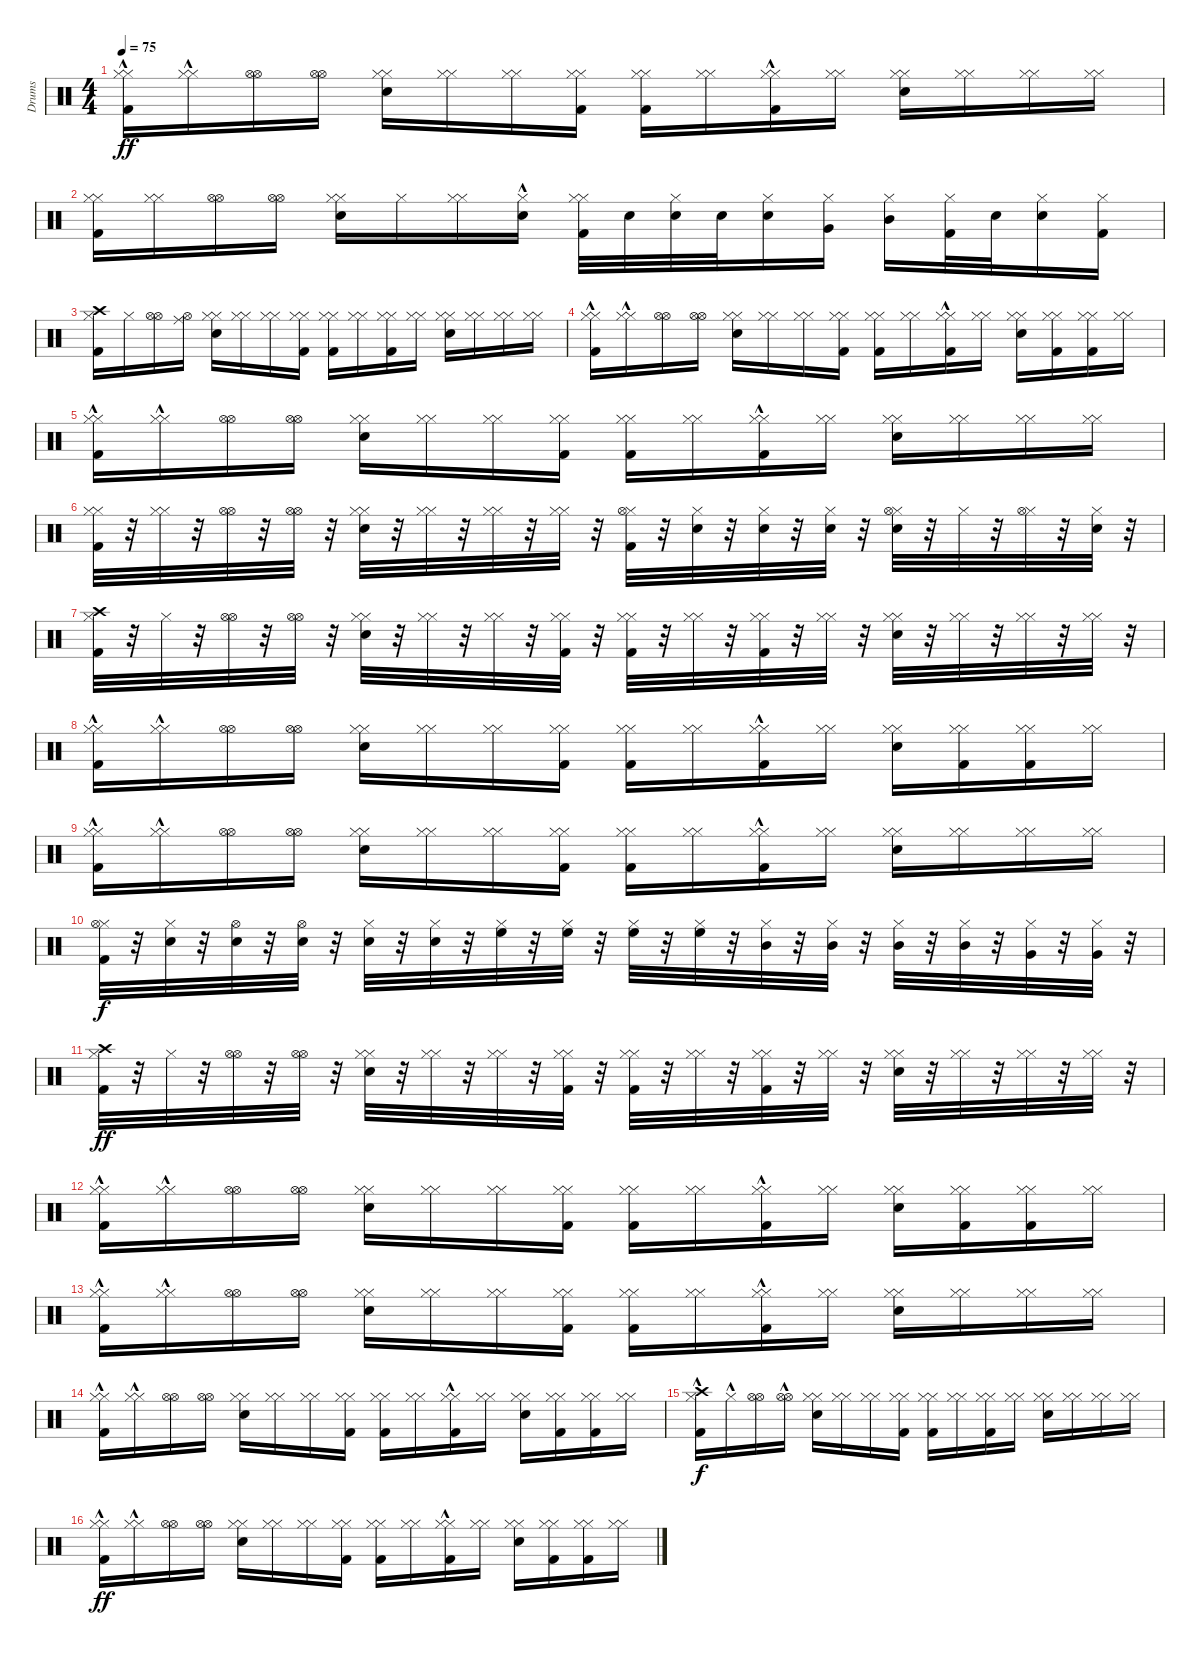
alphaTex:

\track ("Drums" "Drums") {instrument percussion}
\staff {score}
\articulation defaults
\ts (4 4)
\tempo 75
\clef neutral
\ks c
("Hi-Hat (closed)" "Kick (hit) 2"{hac} "Hi-Hat (closed)").16{dy ff} ("Hi-Hat (closed)"{hac} "Hi-Hat (closed)"{hac}).16 ("Hi-Hat (open)" "Hi-Hat (open)").16 ("Hi-Hat (open)" "Hi-Hat (open)").16 ("Hi-Hat (closed)" "Snare (hit) 2" "Hi-Hat (closed)").16 ("Hi-Hat (closed)" "Hi-Hat (closed)").16 ("Hi-Hat (closed)" "Hi-Hat (closed)").16 ("Hi-Hat (closed)" "Kick (hit) 2" "Hi-Hat (closed)").16 ("Hi-Hat (closed)" "Kick (hit) 2" "Hi-Hat (closed)").16 ("Hi-Hat (closed)" "Hi-Hat (closed)").16 ("Kick (hit) 2"{hac} "Hi-Hat (closed)" "Hi-Hat (closed)").16 ("Hi-Hat (closed)" "Hi-Hat (closed)").16 ("Snare (hit) 2" "Hi-Hat (closed)" "Hi-Hat (closed)").16 ("Hi-Hat (closed)" "Hi-Hat (closed)").16 ("Hi-Hat (closed)" "Hi-Hat (closed)").16 ("Hi-Hat (closed)" "Hi-Hat (closed)").16 |
("Hi-Hat (closed)" "Kick (hit) 2" "Hi-Hat (closed)").16 ("Hi-Hat (closed)" "Hi-Hat (closed)").16 ("Hi-Hat (open)" "Hi-Hat (open)").16 ("Hi-Hat (open)" "Hi-Hat (open)").16 ("Hi-Hat (closed)" "Snare (hit) 2" "Hi-Hat (closed)").16 "Hi-Hat (closed)".16 ("Hi-Hat (closed)" "Hi-Hat (closed)").16 ("Snare (hit) 2"{hac} "Hi-Hat (closed)").16 ("Hi-Hat (closed)" "Kick (hit) 2" "Hi-Hat (closed)").32 "Snare (hit) 2".32 ("Snare (hit) 2" "Hi-Hat (closed)").32 "Snare (hit) 2".32 ("Snare (hit) 2" "Hi-Hat (closed)").16 ("Hi-Hat (closed)" "Very Low Tom (hit)").16 ("Hi-Hat (closed)" "Mid Tom (hit)").16 ("Kick (hit) 2" "Hi-Hat (closed)").32 "Snare (hit) 2".32 ("Snare (hit) 2" "Hi-Hat (closed)").16 ("Kick (hit) 2" "Hi-Hat (closed)").16 |
("Hi-Hat (closed)" "Kick (hit) 2" "Crash high (hit)").16 "Hi-Hat (closed)".16 ("Hi-Hat (open)" "Hi-Hat (open)").16 ("Hi-Hat (open)" "Ride (middle)").16 ("Hi-Hat (closed)" "Snare (hit) 2" "Hi-Hat (closed)").16 ("Hi-Hat (closed)" "Hi-Hat (closed)").16 ("Hi-Hat (closed)" "Hi-Hat (closed)").16 ("Hi-Hat (closed)" "Kick (hit) 2" "Hi-Hat (closed)").16 ("Hi-Hat (closed)" "Kick (hit) 2" "Hi-Hat (closed)").16 ("Hi-Hat (closed)" "Hi-Hat (closed)").16 ("Hi-Hat (closed)" "Kick (hit) 2" "Hi-Hat (closed)").16 ("Hi-Hat (closed)" "Hi-Hat (closed)").16 ("Hi-Hat (closed)" "Snare (hit) 2" "Hi-Hat (closed)").16 ("Hi-Hat (closed)" "Hi-Hat (closed)").16 ("Hi-Hat (closed)" "Hi-Hat (closed)").16 ("Hi-Hat (closed)" "Hi-Hat (closed)").16 |
("Hi-Hat (closed)" "Kick (hit) 2"{hac} "Hi-Hat (closed)").16 ("Hi-Hat (closed)"{hac} "Hi-Hat (closed)"{hac}).16 ("Hi-Hat (open)" "Hi-Hat (open)").16 ("Hi-Hat (open)" "Hi-Hat (open)").16 ("Hi-Hat (closed)" "Snare (hit) 2" "Hi-Hat (closed)").16 ("Hi-Hat (closed)" "Hi-Hat (closed)").16 ("Hi-Hat (closed)" "Hi-Hat (closed)").16 ("Hi-Hat (closed)" "Kick (hit) 2" "Hi-Hat (closed)").16 ("Hi-Hat (closed)" "Kick (hit) 2" "Hi-Hat (closed)").16 ("Hi-Hat (closed)" "Hi-Hat (closed)").16 ("Hi-Hat (closed)" "Kick (hit) 2"{hac} "Hi-Hat (closed)").16 ("Hi-Hat (closed)" "Hi-Hat (closed)").16 ("Snare (hit) 2" "Hi-Hat (closed)" "Hi-Hat (closed)").16 ("Hi-Hat (closed)" "Kick (hit) 2" "Hi-Hat (closed)").16 ("Kick (hit) 2" "Hi-Hat (closed)" "Hi-Hat (closed)").16 ("Hi-Hat (closed)" "Hi-Hat (closed)").16 |
("Hi-Hat (closed)" "Kick (hit) 2"{hac} "Hi-Hat (closed)").16 ("Hi-Hat (closed)"{hac} "Hi-Hat (closed)"{hac}).16 ("Hi-Hat (open)" "Hi-Hat (open)").16 ("Hi-Hat (open)" "Hi-Hat (open)").16 ("Hi-Hat (closed)" "Snare (hit) 2" "Hi-Hat (closed)").16 ("Hi-Hat (closed)" "Hi-Hat (closed)").16 ("Hi-Hat (closed)" "Hi-Hat (closed)").16 ("Hi-Hat (closed)" "Kick (hit) 2" "Hi-Hat (closed)").16 ("Hi-Hat (closed)" "Kick (hit) 2" "Hi-Hat (closed)").16 ("Hi-Hat (closed)" "Hi-Hat (closed)").16 ("Kick (hit) 2"{hac} "Hi-Hat (closed)" "Hi-Hat (closed)").16 ("Hi-Hat (closed)" "Hi-Hat (closed)").16 ("Snare (hit) 2" "Hi-Hat (closed)" "Hi-Hat (closed)").16 ("Hi-Hat (closed)" "Hi-Hat (closed)").16 ("Hi-Hat (closed)" "Hi-Hat (closed)").16 ("Hi-Hat (closed)" "Hi-Hat (closed)").16 |
("Hi-Hat (closed)" "Kick (hit) 2" "Hi-Hat (closed)").32 r.32 ("Hi-Hat (closed)" "Hi-Hat (closed)").32 r.32 ("Hi-Hat (open)" "Hi-Hat (open)").32 r.32 ("Hi-Hat (open)" "Hi-Hat (open)").32 r.32 ("Hi-Hat (closed)" "Snare (hit) 2" "Hi-Hat (closed)").32 r.32 ("Hi-Hat (closed)" "Hi-Hat (closed)").32 r.32 ("Hi-Hat (closed)" "Hi-Hat (closed)").32 r.32 ("Hi-Hat (closed)" "Hi-Hat (closed)").32 r.32 ("Hi-Hat (closed)" "Kick (hit) 2" "Hi-Hat (open)").32 r.32 ("Snare (hit) 2" "Hi-Hat (closed)").32 r.32 ("Snare (hit) 2" "Hi-Hat (closed)").32 r.32 ("Snare (hit) 2" "Hi-Hat (closed)").32 r.32 ("Hi-Hat (closed)" "Snare (hit) 2" "Hi-Hat (open)").32 r.32 "Hi-Hat (closed)".32 r.32 ("Hi-Hat (closed)" "Hi-Hat (open)").32 r.32 ("Snare (hit) 2" "Hi-Hat (closed)").32 r.32 |
("Hi-Hat (closed)" "Kick (hit) 2" "Crash high (hit)").32 r.32 "Hi-Hat (closed)".32 r.32 ("Hi-Hat (open)" "Hi-Hat (open)").32 r.32 ("Hi-Hat (open)" "Hi-Hat (open)").32 r.32 ("Hi-Hat (closed)" "Snare (hit) 2" "Hi-Hat (closed)").32 r.32 ("Hi-Hat (closed)" "Hi-Hat (closed)").32 r.32 ("Hi-Hat (closed)" "Hi-Hat (closed)").32 r.32 ("Hi-Hat (closed)" "Kick (hit) 2" "Hi-Hat (closed)").32 r.32 ("Hi-Hat (closed)" "Kick (hit) 2" "Hi-Hat (closed)").32 r.32 ("Hi-Hat (closed)" "Hi-Hat (closed)").32 r.32 ("Hi-Hat (closed)" "Kick (hit) 2" "Hi-Hat (closed)").32 r.32 ("Hi-Hat (closed)" "Hi-Hat (closed)").32 r.32 ("Hi-Hat (closed)" "Snare (hit) 2" "Hi-Hat (closed)").32 r.32 ("Hi-Hat (closed)" "Hi-Hat (closed)").32 r.32 ("Hi-Hat (closed)" "Hi-Hat (closed)").32 r.32 ("Hi-Hat (closed)" "Hi-Hat (closed)").32 r.32 |
("Hi-Hat (closed)" "Kick (hit) 2"{hac} "Hi-Hat (closed)").16 ("Hi-Hat (closed)"{hac} "Hi-Hat (closed)"{hac}).16 ("Hi-Hat (open)" "Hi-Hat (open)").16 ("Hi-Hat (open)" "Hi-Hat (open)").16 ("Hi-Hat (closed)" "Snare (hit) 2" "Hi-Hat (closed)").16 ("Hi-Hat (closed)" "Hi-Hat (closed)").16 ("Hi-Hat (closed)" "Hi-Hat (closed)").16 ("Hi-Hat (closed)" "Kick (hit) 2" "Hi-Hat (closed)").16 ("Hi-Hat (closed)" "Kick (hit) 2" "Hi-Hat (closed)").16 ("Hi-Hat (closed)" "Hi-Hat (closed)").16 ("Hi-Hat (closed)" "Kick (hit) 2"{hac} "Hi-Hat (closed)").16 ("Hi-Hat (closed)" "Hi-Hat (closed)").16 ("Snare (hit) 2" "Hi-Hat (closed)" "Hi-Hat (closed)").16 ("Hi-Hat (closed)" "Kick (hit) 2" "Hi-Hat (closed)").16 ("Kick (hit) 2" "Hi-Hat (closed)" "Hi-Hat (closed)").16 ("Hi-Hat (closed)" "Hi-Hat (closed)").16 |
("Hi-Hat (closed)" "Kick (hit) 2"{hac} "Hi-Hat (closed)").16 ("Hi-Hat (closed)"{hac} "Hi-Hat (closed)"{hac}).16 ("Hi-Hat (open)" "Hi-Hat (open)").16 ("Hi-Hat (open)" "Hi-Hat (open)").16 ("Hi-Hat (closed)" "Snare (hit) 2" "Hi-Hat (closed)").16 ("Hi-Hat (closed)" "Hi-Hat (closed)").16 ("Hi-Hat (closed)" "Hi-Hat (closed)").16 ("Hi-Hat (closed)" "Kick (hit) 2" "Hi-Hat (closed)").16 ("Hi-Hat (closed)" "Kick (hit) 2" "Hi-Hat (closed)").16 ("Hi-Hat (closed)" "Hi-Hat (closed)").16 ("Kick (hit) 2"{hac} "Hi-Hat (closed)" "Hi-Hat (closed)").16 ("Hi-Hat (closed)" "Hi-Hat (closed)").16 ("Snare (hit) 2" "Hi-Hat (closed)" "Hi-Hat (closed)").16 ("Hi-Hat (closed)" "Hi-Hat (closed)").16 ("Hi-Hat (closed)" "Hi-Hat (closed)").16 ("Hi-Hat (closed)" "Hi-Hat (closed)").16 |
("Hi-Hat (closed)" "Kick (hit) 2" "Hi-Hat (open)").32{dy f} r.32 ("Snare (hit) 2" "Hi-Hat (closed)").32 r.32 ("Snare (hit) 2" "Hi-Hat (open)").32 r.32 ("Snare (hit) 2" "Hi-Hat (open)").32 r.32 ("Snare (hit) 2" "Hi-Hat (closed)").32 r.32 ("Snare (hit) 2" "Hi-Hat (closed)").32 r.32 ("Hi-Hat (closed)" "High Floor Tom (hit)").32 r.32 ("Hi-Hat (closed)" "High Floor Tom (hit)").32 r.32 ("Hi-Hat (closed)" "High Floor Tom (hit)").32 r.32 ("Hi-Hat (closed)" "High Floor Tom (hit)").32 r.32 ("Hi-Hat (closed)" "Mid Tom (hit)").32 r.32 ("Hi-Hat (closed)" "Mid Tom (hit)").32 r.32 ("Hi-Hat (closed)" "Mid Tom (hit)").32 r.32 ("Hi-Hat (closed)" "Mid Tom (hit)").32 r.32 ("Hi-Hat (closed)" "Very Low Tom (hit)").32 r.32 ("Hi-Hat (closed)" "Very Low Tom (hit)").32 r.32 |
("Hi-Hat (closed)" "Kick (hit) 2" "Crash high (hit)").32{dy ff} r.32 "Hi-Hat (closed)".32 r.32 ("Hi-Hat (open)" "Hi-Hat (open)").32 r.32 ("Hi-Hat (open)" "Hi-Hat (open)").32 r.32 ("Hi-Hat (closed)" "Snare (hit) 2" "Hi-Hat (closed)").32 r.32 ("Hi-Hat (closed)" "Hi-Hat (closed)").32 r.32 ("Hi-Hat (closed)" "Hi-Hat (closed)").32 r.32 ("Hi-Hat (closed)" "Kick (hit) 2" "Hi-Hat (closed)").32 r.32 ("Hi-Hat (closed)" "Kick (hit) 2" "Hi-Hat (closed)").32 r.32 ("Hi-Hat (closed)" "Hi-Hat (closed)").32 r.32 ("Hi-Hat (closed)" "Kick (hit) 2" "Hi-Hat (closed)").32 r.32 ("Hi-Hat (closed)" "Hi-Hat (closed)").32 r.32 ("Hi-Hat (closed)" "Snare (hit) 2" "Hi-Hat (closed)").32 r.32 ("Hi-Hat (closed)" "Hi-Hat (closed)").32 r.32 ("Hi-Hat (closed)" "Hi-Hat (closed)").32 r.32 ("Hi-Hat (closed)" "Hi-Hat (closed)").32 r.32 |
("Hi-Hat (closed)" "Kick (hit) 2"{hac} "Hi-Hat (closed)").16 ("Hi-Hat (closed)"{hac} "Hi-Hat (closed)"{hac}).16 ("Hi-Hat (open)" "Hi-Hat (open)").16 ("Hi-Hat (open)" "Hi-Hat (open)").16 ("Hi-Hat (closed)" "Snare (hit) 2" "Hi-Hat (closed)").16 ("Hi-Hat (closed)" "Hi-Hat (closed)").16 ("Hi-Hat (closed)" "Hi-Hat (closed)").16 ("Hi-Hat (closed)" "Kick (hit) 2" "Hi-Hat (closed)").16 ("Hi-Hat (closed)" "Kick (hit) 2" "Hi-Hat (closed)").16 ("Hi-Hat (closed)" "Hi-Hat (closed)").16 ("Hi-Hat (closed)" "Kick (hit) 2"{hac} "Hi-Hat (closed)").16 ("Hi-Hat (closed)" "Hi-Hat (closed)").16 ("Snare (hit) 2" "Hi-Hat (closed)" "Hi-Hat (closed)").16 ("Hi-Hat (closed)" "Kick (hit) 2" "Hi-Hat (closed)").16 ("Kick (hit) 2" "Hi-Hat (closed)" "Hi-Hat (closed)").16 ("Hi-Hat (closed)" "Hi-Hat (closed)").16 |
("Hi-Hat (closed)" "Kick (hit) 2"{hac} "Hi-Hat (closed)").16 ("Hi-Hat (closed)"{hac} "Hi-Hat (closed)"{hac}).16 ("Hi-Hat (open)" "Hi-Hat (open)").16 ("Hi-Hat (open)" "Hi-Hat (open)").16 ("Hi-Hat (closed)" "Snare (hit) 2" "Hi-Hat (closed)").16 ("Hi-Hat (closed)" "Hi-Hat (closed)").16 ("Hi-Hat (closed)" "Hi-Hat (closed)").16 ("Hi-Hat (closed)" "Kick (hit) 2" "Hi-Hat (closed)").16 ("Hi-Hat (closed)" "Kick (hit) 2" "Hi-Hat (closed)").16 ("Hi-Hat (closed)" "Hi-Hat (closed)").16 ("Kick (hit) 2"{hac} "Hi-Hat (closed)" "Hi-Hat (closed)").16 ("Hi-Hat (closed)" "Hi-Hat (closed)").16 ("Snare (hit) 2" "Hi-Hat (closed)" "Hi-Hat (closed)").16 ("Hi-Hat (closed)" "Hi-Hat (closed)").16 ("Hi-Hat (closed)" "Hi-Hat (closed)").16 ("Hi-Hat (closed)" "Hi-Hat (closed)").16 |
("Hi-Hat (closed)" "Kick (hit) 2"{hac} "Hi-Hat (closed)").16 ("Hi-Hat (closed)"{hac} "Hi-Hat (closed)"{hac}).16 ("Hi-Hat (open)" "Hi-Hat (open)").16 ("Hi-Hat (open)" "Hi-Hat (open)").16 ("Hi-Hat (closed)" "Snare (hit) 2" "Hi-Hat (closed)").16 ("Hi-Hat (closed)" "Hi-Hat (closed)").16 ("Hi-Hat (closed)" "Hi-Hat (closed)").16 ("Hi-Hat (closed)" "Kick (hit) 2" "Hi-Hat (closed)").16 ("Hi-Hat (closed)" "Kick (hit) 2" "Hi-Hat (closed)").16 ("Hi-Hat (closed)" "Hi-Hat (closed)").16 ("Hi-Hat (closed)" "Kick (hit) 2"{hac} "Hi-Hat (closed)").16 ("Hi-Hat (closed)" "Hi-Hat (closed)").16 ("Snare (hit) 2" "Hi-Hat (closed)" "Hi-Hat (closed)").16 ("Hi-Hat (closed)" "Kick (hit) 2" "Hi-Hat (closed)").16 ("Kick (hit) 2" "Hi-Hat (closed)" "Hi-Hat (closed)").16 ("Hi-Hat (closed)" "Hi-Hat (closed)").16 |
("Hi-Hat (closed)" "Kick (hit) 2" "Crash high (hit)"{hac}).16{dy f volume 11} "Hi-Hat (closed)"{hac}.16 ("Hi-Hat (open)" "Hi-Hat (open)").16{volume 11} ("Hi-Hat (open)"{hac} "Hi-Hat (open)"{hac}).16 ("Hi-Hat (closed)" "Snare (hit) 2" "Hi-Hat (closed)").16{volume 11} ("Hi-Hat (closed)" "Hi-Hat (closed)").16{volume 11} ("Hi-Hat (closed)" "Hi-Hat (closed)").16 ("Hi-Hat (closed)" "Kick (hit) 2" "Hi-Hat (closed)").16{volume 11} ("Hi-Hat (closed)" "Kick (hit) 2" "Hi-Hat (closed)").16{volume 11} ("Hi-Hat (closed)" "Hi-Hat (closed)").16 ("Hi-Hat (closed)" "Kick (hit) 2" "Hi-Hat (closed)").16{volume 10} ("Hi-Hat (closed)" "Hi-Hat (closed)").16 ("Hi-Hat (closed)" "Snare (hit) 2" "Hi-Hat (closed)").16{volume 10} ("Hi-Hat (closed)" "Hi-Hat (closed)").16{volume 10} ("Hi-Hat (closed)" "Hi-Hat (closed)").16 ("Hi-Hat (closed)" "Hi-Hat (closed)").16{volume 10} |
("Hi-Hat (closed)" "Kick (hit) 2"{hac} "Hi-Hat (closed)").16{dy ff volume 10} ("Hi-Hat (closed)"{hac} "Hi-Hat (closed)"{hac}).16 ("Hi-Hat (open)" "Hi-Hat (open)").16{volume 10} ("Hi-Hat (open)" "Hi-Hat (open)").16 ("Hi-Hat (closed)" "Snare (hit) 2" "Hi-Hat (closed)").16{volume 10} ("Hi-Hat (closed)" "Hi-Hat (closed)").16{volume 10} ("Hi-Hat (closed)" "Hi-Hat (closed)").16 ("Hi-Hat (closed)" "Kick (hit) 2" "Hi-Hat (closed)").16{volume 10} ("Hi-Hat (closed)" "Kick (hit) 2" "Hi-Hat (closed)").16{volume 9} ("Hi-Hat (closed)" "Hi-Hat (closed)").16 ("Hi-Hat (closed)" "Kick (hit) 2"{hac} "Hi-Hat (closed)").16{volume 9} ("Hi-Hat (closed)" "Hi-Hat (closed)").16 ("Snare (hit) 2" "Hi-Hat (closed)" "Hi-Hat (closed)").16{volume 9} ("Hi-Hat (closed)" "Kick (hit) 2" "Hi-Hat (closed)").16{volume 9} ("Kick (hit) 2" "Hi-Hat (closed)" "Hi-Hat (closed)").16 ("Hi-Hat (closed)" "Hi-Hat (closed)").16{volume 9}
